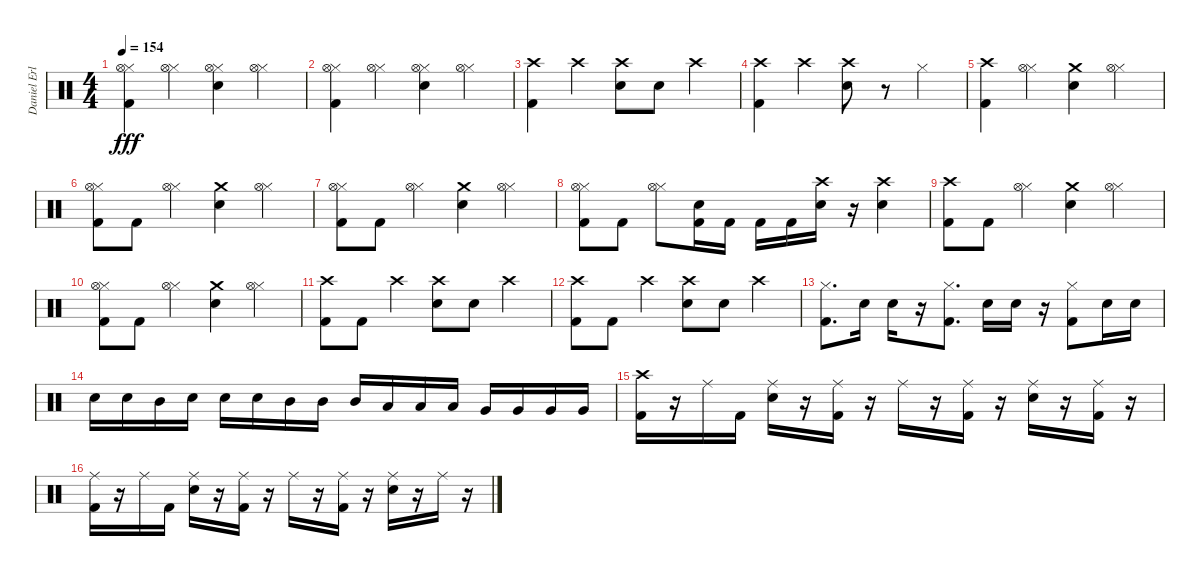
\track ("Daniel Erlandsson" "Daniel Erl") {instrument percussion}
\staff {score}
\articulation defaults
\ts (4 4)
\tempo 154
\clef neutral
\ks c
("Hi-Hat (closed)" "Hi-Hat (open)" "Kick (hit) 2").4{dy fff} ("Hi-Hat (closed)" "Hi-Hat (open)").4 ("Hi-Hat (closed)" "Hi-Hat (open)" "Electric Snare (hit)").4 ("Hi-Hat (closed)" "Hi-Hat (open)").4 |
("Hi-Hat (closed)" "Hi-Hat (open)" "Kick (hit) 2").4 ("Hi-Hat (closed)" "Hi-Hat (open)").4 ("Hi-Hat (closed)" "Hi-Hat (open)" "Electric Snare (hit)").4 ("Hi-Hat (closed)" "Hi-Hat (open)").4 |
("Crash high (hit)" "Kick (hit) 2").4 "Crash high (hit)".4 ("Crash high (hit)" "Electric Snare (hit)").8 "Electric Snare (hit)".8 "Crash high (hit)".4 |
("Crash high (hit)" "Kick (hit) 2").4 "Crash high (hit)".4 ("Crash high (hit)" "Electric Snare (hit)").8 r.8 "Hi-Hat (closed)".4 |
("Crash high (hit)" "Kick (hit) 2").4 ("Hi-Hat (closed)" "Hi-Hat (open)").4 ("Crash medium (hit)" "Electric Snare (hit)").4 ("Hi-Hat (closed)" "Hi-Hat (open)").4 |
("Hi-Hat (closed)" "Hi-Hat (open)" "Kick (hit) 2").8 "Kick (hit) 2".8 ("Hi-Hat (closed)" "Hi-Hat (open)").4 ("Crash medium (hit)" "Electric Snare (hit)").4 ("Hi-Hat (closed)" "Hi-Hat (open)").4 |
("Hi-Hat (closed)" "Hi-Hat (open)" "Kick (hit) 2").8 "Kick (hit) 2".8 ("Hi-Hat (closed)" "Hi-Hat (open)").4 ("Crash medium (hit)" "Electric Snare (hit)").4 ("Hi-Hat (closed)" "Hi-Hat (open)").4 |
("Hi-Hat (closed)" "Hi-Hat (open)" "Kick (hit) 2").8 "Kick (hit) 2".8 ("Hi-Hat (closed)" "Hi-Hat (open)").8 ("Electric Snare (hit)" "Kick (hit) 2").16 "Kick (hit) 2".16 "Kick (hit) 2".16 "Kick (hit) 2".16 ("Crash high (hit)" "Electric Snare (hit)").16 r.16 ("Crash high (hit)" "Electric Snare (hit)").4 |
("Crash high (hit)" "Kick (hit) 2").8 "Kick (hit) 2".8 ("Hi-Hat (closed)" "Hi-Hat (open)").4 ("Crash medium (hit)" "Electric Snare (hit)").4 ("Hi-Hat (closed)" "Hi-Hat (open)").4 |
("Hi-Hat (closed)" "Hi-Hat (open)" "Kick (hit) 2").8 "Kick (hit) 2".8 ("Hi-Hat (closed)" "Hi-Hat (open)").4 ("Crash medium (hit)" "Electric Snare (hit)").4 ("Hi-Hat (closed)" "Hi-Hat (open)").4 |
("Crash high (hit)" "Kick (hit) 2").8 "Kick (hit) 2".8 "Crash high (hit)".4 ("Crash high (hit)" "Electric Snare (hit)").8 "Electric Snare (hit)".8 "Crash high (hit)".4 |
("Crash high (hit)" "Kick (hit) 2").8 "Kick (hit) 2".8 "Crash high (hit)".4 ("Crash high (hit)" "Electric Snare (hit)").8 "Electric Snare (hit)".8 "Crash high (hit)".4 |
("Hi-Hat (closed)" "Kick (hit) 2").8{d} "Electric Snare (hit)".16 "Electric Snare (hit)".16 r.16 ("Hi-Hat (closed)" "Kick (hit) 2").8{d} "Electric Snare (hit)".16 "Electric Snare (hit)".16 r.16 ("Hi-Hat (closed)" "Kick (hit) 2").8 "Electric Snare (hit)".16 "Electric Snare (hit)".16 |
"Electric Snare (hit)".16 "Electric Snare (hit)".16 "Mid Tom (hit)".16 "Electric Snare (hit)".16 "Electric Snare (hit)".16 "Electric Snare (hit)".16 "Mid Tom (hit)".16 "Mid Tom (hit)".16 "Mid Tom (hit)".16 "Low Tom (hit)".16 "Low Tom (hit)".16 "Low Tom (hit)".16 "Very Low Tom (hit)".16 "Very Low Tom (hit)".16 "Very Low Tom (hit)".16 "Very Low Tom (hit)".16 |
("Crash high (hit)" "Kick (hit) 2").16 r.16 "Ride (middle)".16 "Kick (hit) 2".16 ("Ride (middle)" "Electric Snare (hit)").16 r.16 ("Ride (middle)" "Kick (hit) 2").16 r.16 "Ride (middle)".16 r.16 ("Ride (middle)" "Kick (hit) 2").16 r.16 ("Ride (middle)" "Electric Snare (hit)").16 r.16 ("Ride (middle)" "Kick (hit) 2").16 r.16 |
("Ride (middle)" "Kick (hit) 2").16 r.16 "Ride (middle)".16 "Kick (hit) 2".16 ("Ride (middle)" "Electric Snare (hit)").16 r.16 ("Ride (middle)" "Kick (hit) 2").16 r.16 "Ride (middle)".16 r.16 ("Ride (middle)" "Kick (hit) 2").16 r.16 ("Ride (middle)" "Electric Snare (hit)").16 r.16 "Ride (middle)".16 r.16
